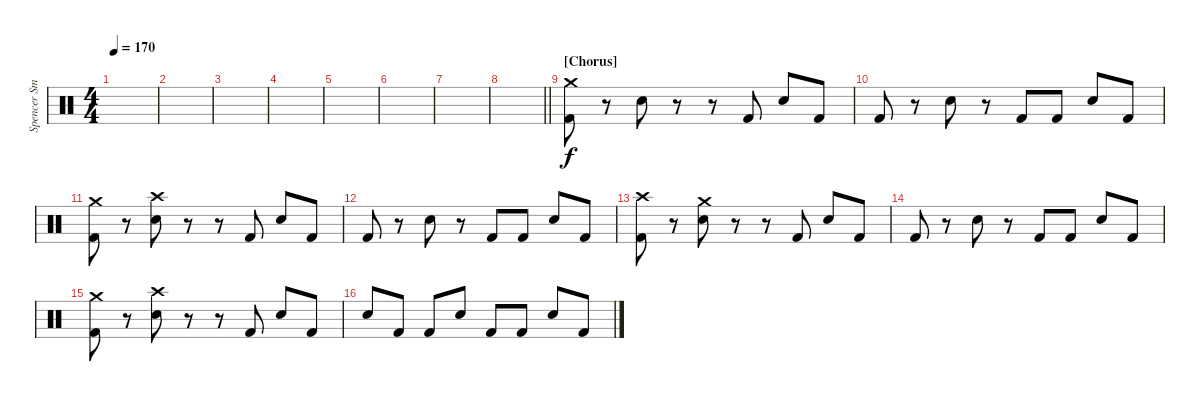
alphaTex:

\track ("Spencer Smith" "Spencer Sm") {instrument percussion}
\staff {score}
\articulation defaults
\ts (4 4)
\tempo 170
\clef neutral
\ks c
|
|
|
|
|
|
|
\barLineRight lightlight
|
\section ("" "[Chorus]")
("Crash medium (hit)" "Kick (hit) 2").8 r.8 "Electric Snare (hit)".8 r.8 r.8 "Kick (hit) 2".8 "Electric Snare (hit)".8 "Kick (hit) 2".8 |
"Kick (hit) 2".8 r.8 "Electric Snare (hit)".8 r.8 "Kick (hit) 2".8 "Kick (hit) 2".8 "Electric Snare (hit)".8 "Kick (hit) 2".8 |
("Crash medium (hit)" "Kick (hit) 2").8 r.8 ("Crash high (hit)" "Electric Snare (hit)").8 r.8 r.8 "Kick (hit) 2".8 "Electric Snare (hit)".8 "Kick (hit) 2".8 |
"Kick (hit) 2".8 r.8 "Electric Snare (hit)".8 r.8 "Kick (hit) 2".8 "Kick (hit) 2".8 "Electric Snare (hit)".8 "Kick (hit) 2".8 |
("Crash high (hit)" "Kick (hit) 2").8 r.8 ("Crash medium (hit)" "Electric Snare (hit)").8 r.8 r.8 "Kick (hit) 2".8 "Electric Snare (hit)".8 "Kick (hit) 2".8 |
"Kick (hit) 2".8 r.8 "Electric Snare (hit)".8 r.8 "Kick (hit) 2".8 "Kick (hit) 2".8 "Electric Snare (hit)".8 "Kick (hit) 2".8 |
("Crash medium (hit)" "Kick (hit) 2").8 r.8 ("Crash high (hit)" "Electric Snare (hit)").8 r.8 r.8 "Kick (hit) 2".8 "Electric Snare (hit)".8 "Kick (hit) 2".8 |
"Electric Snare (hit)".8 "Kick (hit) 2".8 "Kick (hit) 2".8 "Electric Snare (hit)".8 "Kick (hit) 2".8 "Kick (hit) 2".8 "Electric Snare (hit)".8 "Kick (hit) 2".8
